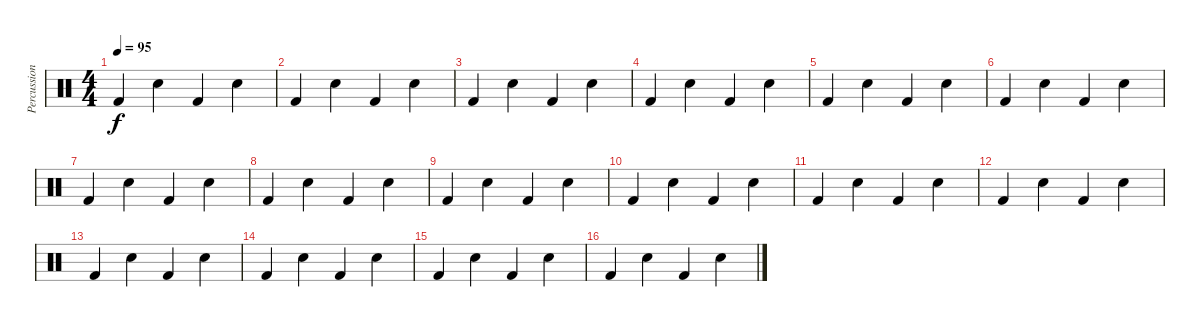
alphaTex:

\track ("Percussion" "Percussion") {instrument percussion}
\staff {score}
\articulation defaults
\ts (4 4)
\tempo 95
\clef neutral
\ks c "Kick (hit) 2".4{dy f} "Snare (hit) 2".4 "Kick (hit) 2".4 "Snare (hit) 2".4
|
"Kick (hit) 2".4 "Snare (hit) 2".4 "Kick (hit) 2".4 "Snare (hit) 2".4 |
"Kick (hit) 2".4 "Snare (hit) 2".4 "Kick (hit) 2".4 "Snare (hit) 2".4 |
"Kick (hit) 2".4 "Snare (hit) 2".4 "Kick (hit) 2".4 "Snare (hit) 2".4 |
"Kick (hit) 2".4 "Snare (hit) 2".4 "Kick (hit) 2".4 "Snare (hit) 2".4 |
"Kick (hit) 2".4 "Snare (hit) 2".4 "Kick (hit) 2".4 "Snare (hit) 2".4 |
"Kick (hit) 2".4 "Snare (hit) 2".4 "Kick (hit) 2".4 "Snare (hit) 2".4 |
"Kick (hit) 2".4 "Snare (hit) 2".4 "Kick (hit) 2".4 "Snare (hit) 2".4 |
"Kick (hit) 2".4 "Snare (hit) 2".4 "Kick (hit) 2".4 "Snare (hit) 2".4 |
"Kick (hit) 2".4 "Snare (hit) 2".4 "Kick (hit) 2".4 "Snare (hit) 2".4 |
"Kick (hit) 2".4 "Snare (hit) 2".4 "Kick (hit) 2".4 "Snare (hit) 2".4 |
"Kick (hit) 2".4 "Snare (hit) 2".4 "Kick (hit) 2".4 "Snare (hit) 2".4 |
"Kick (hit) 2".4 "Snare (hit) 2".4 "Kick (hit) 2".4 "Snare (hit) 2".4 |
"Kick (hit) 2".4 "Snare (hit) 2".4 "Kick (hit) 2".4 "Snare (hit) 2".4 |
"Kick (hit) 2".4 "Snare (hit) 2".4 "Kick (hit) 2".4 "Snare (hit) 2".4 |
"Kick (hit) 2".4 "Snare (hit) 2".4 "Kick (hit) 2".4 "Snare (hit) 2".4
